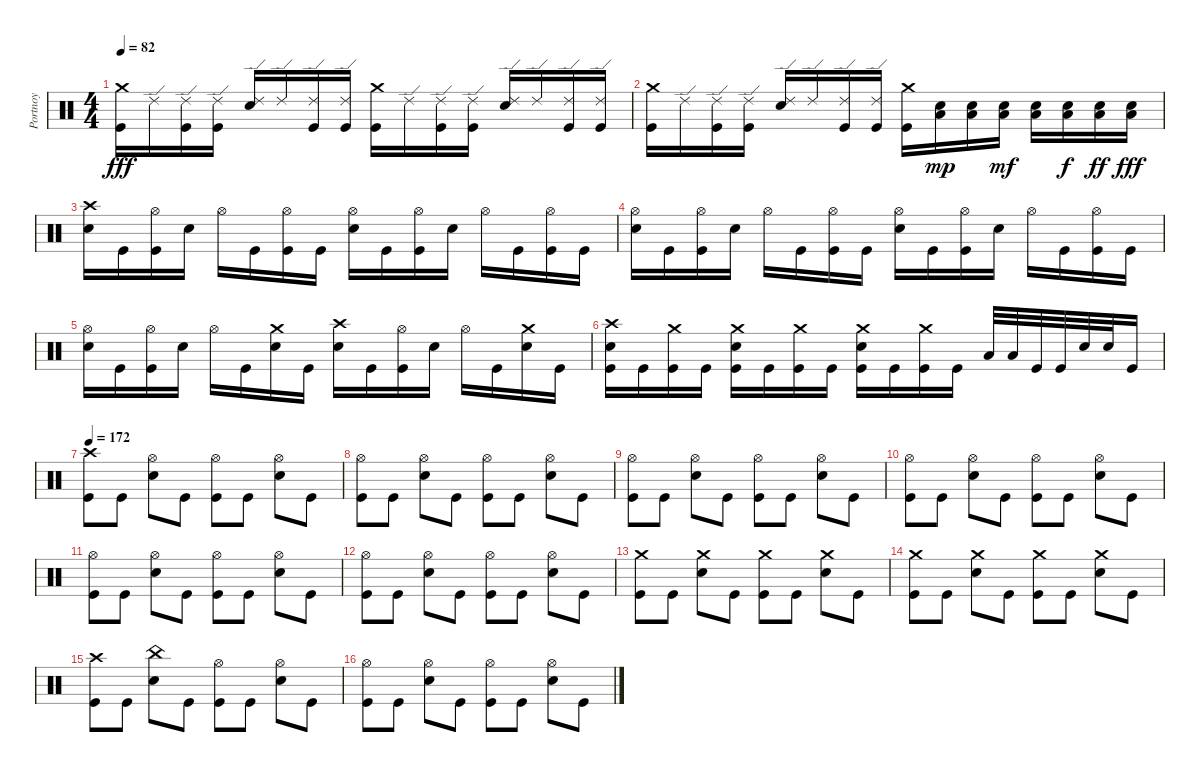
\track ("Portnoy" "Portnoy") {instrument percussion}
\staff {score}
\articulation defaults
\ts (4 4)
\tempo 82
\clef neutral
\ks c
("Crash medium (hit)" "Kick (hit)").16{dy fff} "Ride (edge) 2".16 ("Ride (edge) 2" "Kick (hit)").16 ("Ride (edge) 2" "Kick (hit)").16 ("Ride (edge) 2" "Snare (hit) 2").16 "Ride (edge) 2".16 ("Ride (edge) 2" "Kick (hit)").16 ("Ride (edge) 2" "Kick (hit)").16 ("Crash medium (hit)" "Kick (hit)").16 "Ride (edge) 2".16 ("Ride (edge) 2" "Kick (hit)").16 ("Ride (edge) 2" "Kick (hit)").16 ("Ride (edge) 2" "Snare (hit) 2").16 "Ride (edge) 2".16 ("Ride (edge) 2" "Kick (hit)").16 ("Ride (edge) 2" "Kick (hit)").16 |
("Crash medium (hit)" "Kick (hit)").16 "Ride (edge) 2".16 ("Ride (edge) 2" "Kick (hit)").16 ("Ride (edge) 2" "Kick (hit)").16 ("Ride (edge) 2" "Snare (hit) 2").16 "Ride (edge) 2".16 ("Ride (edge) 2" "Kick (hit)").16 ("Ride (edge) 2" "Kick (hit)").16 ("Crash medium (hit)" "Kick (hit)").16 ("Low Floor Tom (hit)" "Snare (hit) 2").16{dy mp} ("Low Floor Tom (hit)" "Snare (hit) 2").16 ("Low Floor Tom (hit)" "Snare (hit) 2").16{dy mf} ("Low Floor Tom (hit)" "Snare (hit) 2").16 ("Low Floor Tom (hit)" "Snare (hit) 2").16{dy f} ("Low Floor Tom (hit)" "Snare (hit) 2").16{dy ff} ("Low Floor Tom (hit)" "Snare (hit) 2").16{dy fff} |
("Crash high (hit)" "Snare (hit) 2").16 "Kick (hit)".16 ("Hi-Hat (open)" "Kick (hit)").16 "Snare (hit) 2".16 "Hi-Hat (open)".16 "Kick (hit)".16 ("Hi-Hat (open)" "Kick (hit)").16 "Kick (hit)".16 ("Hi-Hat (open)" "Snare (hit) 2").16 "Kick (hit)".16 ("Hi-Hat (open)" "Kick (hit)").16 "Snare (hit) 2".16 "Hi-Hat (open)".16 "Kick (hit)".16 ("Hi-Hat (open)" "Kick (hit)").16 "Kick (hit)".16 |
("Hi-Hat (open)" "Snare (hit) 2").16 "Kick (hit)".16 ("Hi-Hat (open)" "Kick (hit)").16 "Snare (hit) 2".16 "Hi-Hat (open)".16 "Kick (hit)".16 ("Hi-Hat (open)" "Kick (hit)").16 "Kick (hit)".16 ("Hi-Hat (open)" "Snare (hit) 2").16 "Kick (hit)".16 ("Hi-Hat (open)" "Kick (hit)").16 "Snare (hit) 2".16 "Hi-Hat (open)".16 "Kick (hit)".16 ("Hi-Hat (open)" "Kick (hit)").16 "Kick (hit)".16 |
("Hi-Hat (open)" "Snare (hit) 2").16 "Kick (hit)".16 ("Hi-Hat (open)" "Kick (hit)").16 "Snare (hit) 2".16 "Hi-Hat (open)".16 "Kick (hit)".16 ("Crash medium (hit)" "Snare (hit) 2").16 "Kick (hit)".16 ("Crash high (hit)" "Snare (hit) 2").16 "Kick (hit)".16 ("Hi-Hat (open)" "Kick (hit)").16 "Snare (hit) 2".16 "Hi-Hat (open)".16 "Kick (hit)".16 ("Crash medium (hit)" "Snare (hit) 2").16 "Kick (hit)".16 |
("Crash high (hit)" "Snare (hit) 2" "Kick (hit)").16 "Kick (hit)".16 ("Crash medium (hit)" "Kick (hit)").16 "Kick (hit)".16 ("Crash medium (hit)" "Snare (hit) 2" "Kick (hit)").16 "Kick (hit)".16 ("Crash medium (hit)" "Kick (hit)").16 "Kick (hit)".16 ("Crash medium (hit)" "Snare (hit) 2" "Kick (hit)").16 "Kick (hit)".16 ("Crash medium (hit)" "Kick (hit)").16 "Kick (hit)".16 "Low Tom (hit)".32 "Low Tom (hit)".32 "Kick (hit)".32 "Kick (hit)".32 "Snare (hit) 2".32 "Snare (hit) 2".32 "Kick (hit)".16 |
\tempo 172
("Crash high (hit)" "Kick (hit)").8 "Kick (hit)".8 ("Hi-Hat (open)" "Snare (hit) 2").8 "Kick (hit)".8 ("Hi-Hat (open)" "Kick (hit)").8 "Kick (hit)".8 ("Hi-Hat (open)" "Snare (hit) 2").8 "Kick (hit)".8 |
("Hi-Hat (open)" "Kick (hit)").8 "Kick (hit)".8 ("Hi-Hat (open)" "Snare (hit) 2").8 "Kick (hit)".8 ("Hi-Hat (open)" "Kick (hit)").8 "Kick (hit)".8 ("Hi-Hat (open)" "Snare (hit) 2").8 "Kick (hit)".8 |
("Hi-Hat (open)" "Kick (hit)").8 "Kick (hit)".8 ("Hi-Hat (open)" "Snare (hit) 2").8 "Kick (hit)".8 ("Hi-Hat (open)" "Kick (hit)").8 "Kick (hit)".8 ("Hi-Hat (open)" "Snare (hit) 2").8 "Kick (hit)".8 |
("Hi-Hat (open)" "Kick (hit)").8 "Kick (hit)".8 ("Hi-Hat (open)" "Snare (hit) 2").8 "Kick (hit)".8 ("Hi-Hat (open)" "Kick (hit)").8 "Kick (hit)".8 ("Hi-Hat (open)" "Snare (hit) 2").8 "Kick (hit)".8 |
("Hi-Hat (open)" "Kick (hit)").8 "Kick (hit)".8 ("Hi-Hat (open)" "Snare (hit) 2").8 "Kick (hit)".8 ("Hi-Hat (open)" "Kick (hit)").8 "Kick (hit)".8 ("Hi-Hat (open)" "Snare (hit) 2").8 "Kick (hit)".8 |
("Hi-Hat (open)" "Kick (hit)").8 "Kick (hit)".8 ("Hi-Hat (open)" "Snare (hit) 2").8 "Kick (hit)".8 ("Hi-Hat (open)" "Kick (hit)").8 "Kick (hit)".8 ("Hi-Hat (open)" "Snare (hit) 2").8 "Kick (hit)".8 |
("Crash medium (hit)" "Kick (hit)").8 "Kick (hit)".8 ("Crash medium (hit)" "Snare (hit) 2").8 "Kick (hit)".8 ("Crash medium (hit)" "Kick (hit)").8 "Kick (hit)".8 ("Crash medium (hit)" "Snare (hit) 2").8 "Kick (hit)".8 |
("Crash medium (hit)" "Kick (hit)").8 "Kick (hit)".8 ("Crash medium (hit)" "Snare (hit) 2").8 "Kick (hit)".8 ("Crash medium (hit)" "Kick (hit)").8 "Kick (hit)".8 ("Crash medium (hit)" "Snare (hit) 2").8 "Kick (hit)".8 |
("Crash high (hit)" "Kick (hit)").8 "Kick (hit)".8 ("China (hit)" "Snare (hit) 2").8 "Kick (hit)".8 ("Hi-Hat (open)" "Kick (hit)").8 "Kick (hit)".8 ("Hi-Hat (open)" "Snare (hit) 2").8 "Kick (hit)".8 |
("Hi-Hat (open)" "Kick (hit)").8 "Kick (hit)".8 ("Hi-Hat (open)" "Snare (hit) 2").8 "Kick (hit)".8 ("Hi-Hat (open)" "Kick (hit)").8 "Kick (hit)".8 ("Hi-Hat (open)" "Snare (hit) 2").8 "Kick (hit)".8
